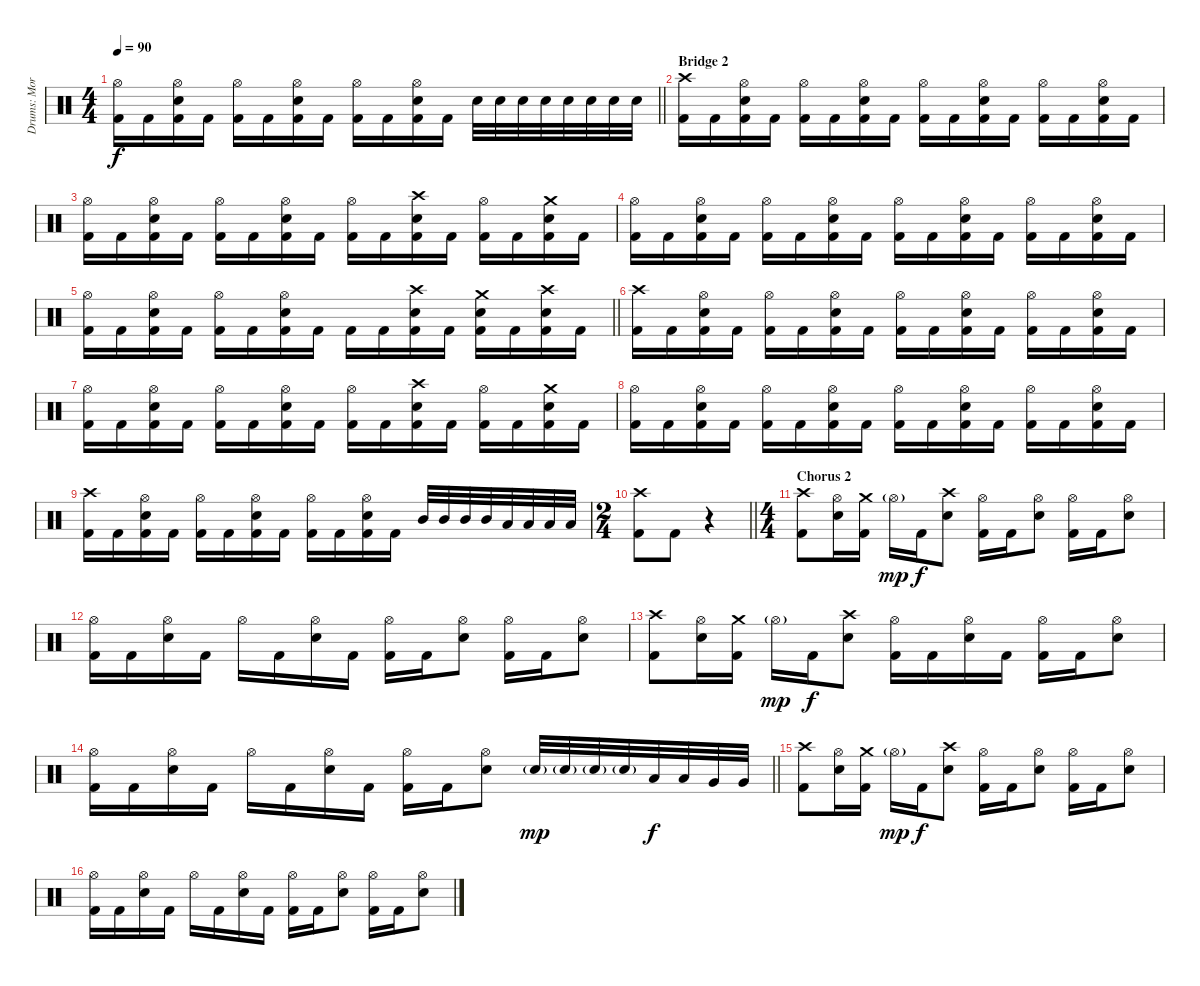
\track ("Drums: Morten Færøvig" "Drums: Mor") {instrument percussion}
\staff {score}
\articulation defaults
\ts (4 4)
\tempo 90
\clef neutral
\barLineRight lightlight
\ks aminor
("Hi-Hat (open)" "Kick (hit) 2").16{dy f} "Kick (hit) 2".16 ("Hi-Hat (open)" "Electric Snare (hit)" "Kick (hit) 2").16 "Kick (hit) 2".16 ("Hi-Hat (open)" "Kick (hit) 2").16 "Kick (hit) 2".16 ("Hi-Hat (open)" "Electric Snare (hit)" "Kick (hit) 2").16 "Kick (hit) 2".16 ("Hi-Hat (open)" "Kick (hit) 2").16 "Kick (hit) 2".16 ("Hi-Hat (open)" "Electric Snare (hit)" "Kick (hit) 2").16 "Kick (hit) 2".16 "Electric Snare (hit)".32 "Electric Snare (hit)".32 "Electric Snare (hit)".32 "Electric Snare (hit)".32 "Electric Snare (hit)".32 "Electric Snare (hit)".32 "Electric Snare (hit)".32 "Electric Snare (hit)".32 |
\section ("" "Bridge 2")
("Crash high (hit)" "Kick (hit) 2").16 "Kick (hit) 2".16 ("Hi-Hat (open)" "Electric Snare (hit)" "Kick (hit) 2").16 "Kick (hit) 2".16 ("Hi-Hat (open)" "Kick (hit) 2").16 "Kick (hit) 2".16 ("Hi-Hat (open)" "Electric Snare (hit)" "Kick (hit) 2").16 "Kick (hit) 2".16 ("Hi-Hat (open)" "Kick (hit) 2").16 "Kick (hit) 2".16 ("Hi-Hat (open)" "Electric Snare (hit)" "Kick (hit) 2").16 "Kick (hit) 2".16 ("Hi-Hat (open)" "Kick (hit) 2").16 "Kick (hit) 2".16 ("Hi-Hat (open)" "Electric Snare (hit)" "Kick (hit) 2").16 "Kick (hit) 2".16 |
("Hi-Hat (open)" "Kick (hit) 2").16 "Kick (hit) 2".16 ("Hi-Hat (open)" "Electric Snare (hit)" "Kick (hit) 2").16 "Kick (hit) 2".16 ("Hi-Hat (open)" "Kick (hit) 2").16 "Kick (hit) 2".16 ("Hi-Hat (open)" "Electric Snare (hit)" "Kick (hit) 2").16 "Kick (hit) 2".16 ("Hi-Hat (open)" "Kick (hit) 2").16 "Kick (hit) 2".16 ("Crash high (hit)" "Electric Snare (hit)" "Kick (hit) 2").16 "Kick (hit) 2".16 ("Hi-Hat (open)" "Kick (hit) 2").16 "Kick (hit) 2".16 ("Crash medium (hit)" "Electric Snare (hit)" "Kick (hit) 2").16 "Kick (hit) 2".16 |
("Hi-Hat (open)" "Kick (hit) 2").16 "Kick (hit) 2".16 ("Hi-Hat (open)" "Electric Snare (hit)" "Kick (hit) 2").16 "Kick (hit) 2".16 ("Hi-Hat (open)" "Kick (hit) 2").16 "Kick (hit) 2".16 ("Hi-Hat (open)" "Electric Snare (hit)" "Kick (hit) 2").16 "Kick (hit) 2".16 ("Hi-Hat (open)" "Kick (hit) 2").16 "Kick (hit) 2".16 ("Hi-Hat (open)" "Electric Snare (hit)" "Kick (hit) 2").16 "Kick (hit) 2".16 ("Hi-Hat (open)" "Kick (hit) 2").16 "Kick (hit) 2".16 ("Hi-Hat (open)" "Electric Snare (hit)" "Kick (hit) 2").16 "Kick (hit) 2".16 |
\barLineRight lightlight
("Hi-Hat (open)" "Kick (hit) 2").16 "Kick (hit) 2".16 ("Hi-Hat (open)" "Electric Snare (hit)" "Kick (hit) 2").16 "Kick (hit) 2".16 ("Hi-Hat (open)" "Kick (hit) 2").16 "Kick (hit) 2".16 ("Hi-Hat (open)" "Electric Snare (hit)" "Kick (hit) 2").16 "Kick (hit) 2".16 "Kick (hit) 2".16 "Kick (hit) 2".16 ("Crash high (hit)" "Electric Snare (hit)" "Kick (hit) 2").16 "Kick (hit) 2".16 ("Crash medium (hit)" "Electric Snare (hit)" "Kick (hit) 2").16 "Kick (hit) 2".16 ("Crash high (hit)" "Electric Snare (hit)" "Kick (hit) 2").16 "Kick (hit) 2".16 |
("Crash high (hit)" "Kick (hit) 2").16 "Kick (hit) 2".16 ("Hi-Hat (open)" "Electric Snare (hit)" "Kick (hit) 2").16 "Kick (hit) 2".16 ("Hi-Hat (open)" "Kick (hit) 2").16 "Kick (hit) 2".16 ("Hi-Hat (open)" "Electric Snare (hit)" "Kick (hit) 2").16 "Kick (hit) 2".16 ("Hi-Hat (open)" "Kick (hit) 2").16 "Kick (hit) 2".16 ("Hi-Hat (open)" "Electric Snare (hit)" "Kick (hit) 2").16 "Kick (hit) 2".16 ("Hi-Hat (open)" "Kick (hit) 2").16 "Kick (hit) 2".16 ("Hi-Hat (open)" "Electric Snare (hit)" "Kick (hit) 2").16 "Kick (hit) 2".16 |
("Hi-Hat (open)" "Kick (hit) 2").16 "Kick (hit) 2".16 ("Hi-Hat (open)" "Electric Snare (hit)" "Kick (hit) 2").16 "Kick (hit) 2".16 ("Hi-Hat (open)" "Kick (hit) 2").16 "Kick (hit) 2".16 ("Hi-Hat (open)" "Electric Snare (hit)" "Kick (hit) 2").16 "Kick (hit) 2".16 ("Hi-Hat (open)" "Kick (hit) 2").16 "Kick (hit) 2".16 ("Crash high (hit)" "Electric Snare (hit)" "Kick (hit) 2").16 "Kick (hit) 2".16 ("Hi-Hat (open)" "Kick (hit) 2").16 "Kick (hit) 2".16 ("Crash medium (hit)" "Electric Snare (hit)" "Kick (hit) 2").16 "Kick (hit) 2".16 |
("Hi-Hat (open)" "Kick (hit) 2").16 "Kick (hit) 2".16 ("Hi-Hat (open)" "Electric Snare (hit)" "Kick (hit) 2").16 "Kick (hit) 2".16 ("Hi-Hat (open)" "Kick (hit) 2").16 "Kick (hit) 2".16 ("Hi-Hat (open)" "Electric Snare (hit)" "Kick (hit) 2").16 "Kick (hit) 2".16 ("Hi-Hat (open)" "Kick (hit) 2").16 "Kick (hit) 2".16 ("Hi-Hat (open)" "Electric Snare (hit)" "Kick (hit) 2").16 "Kick (hit) 2".16 ("Hi-Hat (open)" "Kick (hit) 2").16 "Kick (hit) 2".16 ("Hi-Hat (open)" "Electric Snare (hit)" "Kick (hit) 2").16 "Kick (hit) 2".16 |
("Crash high (hit)" "Kick (hit) 2").16 "Kick (hit) 2".16 ("Hi-Hat (open)" "Electric Snare (hit)" "Kick (hit) 2").16 "Kick (hit) 2".16 ("Hi-Hat (open)" "Kick (hit) 2").16 "Kick (hit) 2".16 ("Hi-Hat (open)" "Electric Snare (hit)" "Kick (hit) 2").16 "Kick (hit) 2".16 ("Hi-Hat (open)" "Kick (hit) 2").16 "Kick (hit) 2".16 ("Hi-Hat (open)" "Electric Snare (hit)" "Kick (hit) 2").16 "Kick (hit) 2".16 "Mid Tom (hit)".32 "Mid Tom (hit)".32 "Mid Tom (hit)".32 "Mid Tom (hit)".32 "Low Tom (hit)".32 "Low Tom (hit)".32 "Low Tom (hit)".32 "Low Tom (hit)".32 |
\ts (2 4)
\barLineRight lightlight
("Crash high (hit)" "Kick (hit) 2").8 "Kick (hit) 2".8 r.4 |
\ts (4 4)
\section ("" "Chorus 2")
("Crash high (hit)" "Kick (hit) 2").8 ("Hi-Hat (open)" "Electric Snare (hit)").16 ("Crash medium (hit)" "Kick (hit) 2").16 "Hi-Hat (open)"{g}.16{dy mp} "Kick (hit) 2".16{dy f} ("Crash high (hit)" "Electric Snare (hit)").8 ("Hi-Hat (open)" "Kick (hit) 2").16 "Kick (hit) 2".16 ("Hi-Hat (open)" "Electric Snare (hit)").8 ("Hi-Hat (open)" "Kick (hit) 2").16 "Kick (hit) 2".16 ("Hi-Hat (open)" "Electric Snare (hit)").8 |
("Hi-Hat (open)" "Kick (hit) 2").16 "Kick (hit) 2".16 ("Hi-Hat (open)" "Electric Snare (hit)").16 "Kick (hit) 2".16 "Hi-Hat (open)".16 "Kick (hit) 2".16 ("Hi-Hat (open)" "Electric Snare (hit)").16 "Kick (hit) 2".16 ("Hi-Hat (open)" "Kick (hit) 2").16 "Kick (hit) 2".16 ("Hi-Hat (open)" "Electric Snare (hit)").8 ("Hi-Hat (open)" "Kick (hit) 2").16 "Kick (hit) 2".16 ("Hi-Hat (open)" "Electric Snare (hit)").8 |
("Crash high (hit)" "Kick (hit) 2").8 ("Hi-Hat (open)" "Electric Snare (hit)").16 ("Crash medium (hit)" "Kick (hit) 2").16 "Hi-Hat (open)"{g}.16{dy mp} "Kick (hit) 2".16{dy f} ("Crash high (hit)" "Electric Snare (hit)").8 ("Hi-Hat (open)" "Kick (hit) 2").16 "Kick (hit) 2".16 ("Hi-Hat (open)" "Electric Snare (hit)").16 "Kick (hit) 2".16 ("Hi-Hat (open)" "Kick (hit) 2").16 "Kick (hit) 2".16 ("Hi-Hat (open)" "Electric Snare (hit)").8 |
\barLineRight lightlight
("Hi-Hat (open)" "Kick (hit) 2").16 "Kick (hit) 2".16 ("Hi-Hat (open)" "Electric Snare (hit)").16 "Kick (hit) 2".16 "Hi-Hat (open)".16 "Kick (hit) 2".16 ("Hi-Hat (open)" "Electric Snare (hit)").16 "Kick (hit) 2".16 ("Hi-Hat (open)" "Kick (hit) 2").16 "Kick (hit) 2".16 ("Hi-Hat (open)" "Electric Snare (hit)").8 "Electric Snare (hit)"{g}.32{dy mp} "Electric Snare (hit)"{g}.32 "Electric Snare (hit)"{g}.32 "Electric Snare (hit)"{g}.32 "Low Tom (hit)".32{dy f} "Low Tom (hit)".32 "Very Low Tom (hit)".32 "Very Low Tom (hit)".32 |
("Crash high (hit)" "Kick (hit) 2").8 ("Hi-Hat (open)" "Electric Snare (hit)").16 ("Crash medium (hit)" "Kick (hit) 2").16 "Hi-Hat (open)"{g}.16{dy mp} "Kick (hit) 2".16{dy f} ("Crash high (hit)" "Electric Snare (hit)").8 ("Hi-Hat (open)" "Kick (hit) 2").16 "Kick (hit) 2".16 ("Hi-Hat (open)" "Electric Snare (hit)").8 ("Hi-Hat (open)" "Kick (hit) 2").16 "Kick (hit) 2".16 ("Hi-Hat (open)" "Electric Snare (hit)").8 |
("Hi-Hat (open)" "Kick (hit) 2").16 "Kick (hit) 2".16 ("Hi-Hat (open)" "Electric Snare (hit)").16 "Kick (hit) 2".16 "Hi-Hat (open)".16 "Kick (hit) 2".16 ("Hi-Hat (open)" "Electric Snare (hit)").16 "Kick (hit) 2".16 ("Hi-Hat (open)" "Kick (hit) 2").16 "Kick (hit) 2".16 ("Hi-Hat (open)" "Electric Snare (hit)").8 ("Hi-Hat (open)" "Kick (hit) 2").16 "Kick (hit) 2".16 ("Hi-Hat (open)" "Electric Snare (hit)").8
